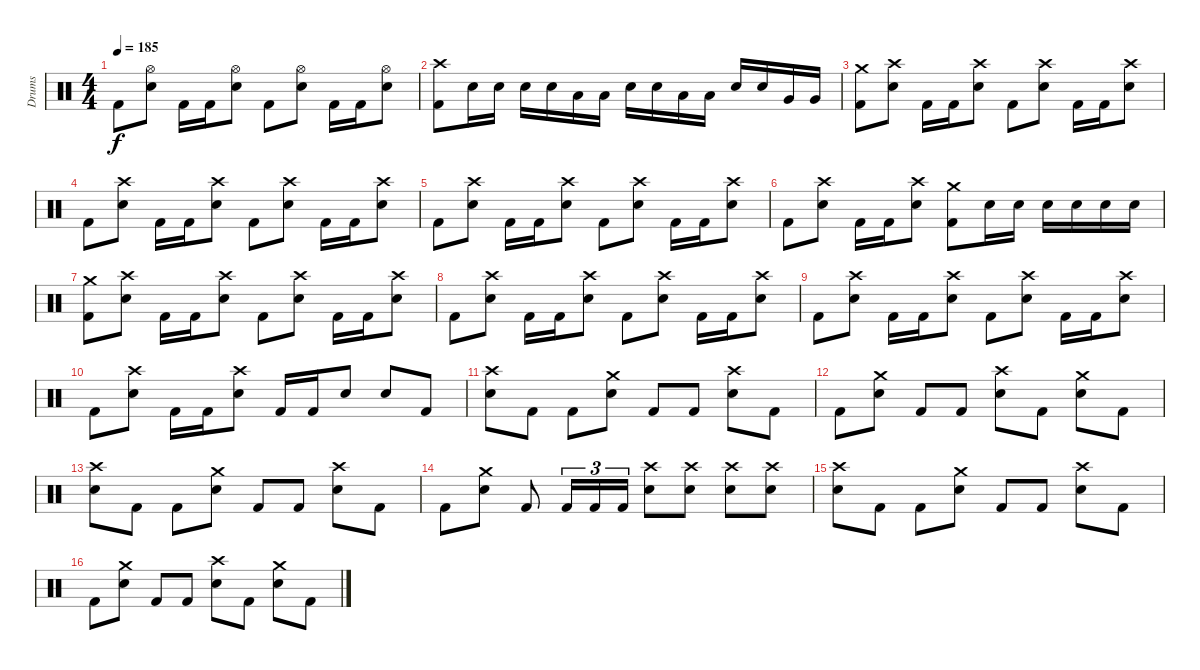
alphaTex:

\track ("Drums" "Drums") {instrument percussion}
\staff {score}
\articulation defaults
\ts (4 4)
\tempo 185
\clef neutral
\ks c "Kick (hit) 2".8{dy f}
("Hi-Hat (open)" "Electric Snare (hit)").8 "Kick (hit) 2".16 "Kick (hit) 2".16 ("Hi-Hat (open)" "Electric Snare (hit)").8 "Kick (hit) 2".8 ("Hi-Hat (open)" "Electric Snare (hit)").8 "Kick (hit) 2".16 "Kick (hit) 2".16 ("Hi-Hat (open)" "Electric Snare (hit)").8 |
("Crash high (hit)" "Kick (hit) 2").8 "Electric Snare (hit)".16 "Electric Snare (hit)".16 "Electric Snare (hit)".16 "Electric Snare (hit)".16 "Low Tom (hit)".16 "Low Tom (hit)".16 "Electric Snare (hit)".16 "Electric Snare (hit)".16 "Low Tom (hit)".16 "Low Tom (hit)".16 "Electric Snare (hit)".16 "Electric Snare (hit)".16 "Very Low Tom (hit)".16 "Very Low Tom (hit)".16 |
("Crash medium (hit)" "Kick (hit) 2").8 ("Crash high (hit)" "Electric Snare (hit)").8 "Kick (hit) 2".16 "Kick (hit) 2".16 ("Crash high (hit)" "Electric Snare (hit)").8 "Kick (hit) 2".8 ("Crash high (hit)" "Electric Snare (hit)").8 "Kick (hit) 2".16 "Kick (hit) 2".16 ("Crash high (hit)" "Electric Snare (hit)").8 |
"Kick (hit) 2".8 ("Crash high (hit)" "Electric Snare (hit)").8 "Kick (hit) 2".16 "Kick (hit) 2".16 ("Crash high (hit)" "Electric Snare (hit)").8 "Kick (hit) 2".8 ("Crash high (hit)" "Electric Snare (hit)").8 "Kick (hit) 2".16 "Kick (hit) 2".16 ("Crash high (hit)" "Electric Snare (hit)").8 |
"Kick (hit) 2".8 ("Crash high (hit)" "Electric Snare (hit)").8 "Kick (hit) 2".16 "Kick (hit) 2".16 ("Crash high (hit)" "Electric Snare (hit)").8 "Kick (hit) 2".8 ("Crash high (hit)" "Electric Snare (hit)").8 "Kick (hit) 2".16 "Kick (hit) 2".16 ("Crash high (hit)" "Electric Snare (hit)").8 |
"Kick (hit) 2".8 ("Crash high (hit)" "Electric Snare (hit)").8 "Kick (hit) 2".16 "Kick (hit) 2".16 ("Crash high (hit)" "Electric Snare (hit)").8 ("Crash medium (hit)" "Kick (hit) 2").8 "Electric Snare (hit)".16 "Electric Snare (hit)".16 "Electric Snare (hit)".16 "Electric Snare (hit)".16 "Electric Snare (hit)".16 "Electric Snare (hit)".16 |
("Crash medium (hit)" "Kick (hit) 2").8 ("Crash high (hit)" "Electric Snare (hit)").8 "Kick (hit) 2".16 "Kick (hit) 2".16 ("Crash high (hit)" "Electric Snare (hit)").8 "Kick (hit) 2".8 ("Crash high (hit)" "Electric Snare (hit)").8 "Kick (hit) 2".16 "Kick (hit) 2".16 ("Crash high (hit)" "Electric Snare (hit)").8 |
"Kick (hit) 2".8 ("Crash high (hit)" "Electric Snare (hit)").8 "Kick (hit) 2".16 "Kick (hit) 2".16 ("Crash high (hit)" "Electric Snare (hit)").8 "Kick (hit) 2".8 ("Crash high (hit)" "Electric Snare (hit)").8 "Kick (hit) 2".16 "Kick (hit) 2".16 ("Crash high (hit)" "Electric Snare (hit)").8 |
"Kick (hit) 2".8 ("Crash high (hit)" "Electric Snare (hit)").8 "Kick (hit) 2".16 "Kick (hit) 2".16 ("Crash high (hit)" "Electric Snare (hit)").8 "Kick (hit) 2".8 ("Crash high (hit)" "Electric Snare (hit)").8 "Kick (hit) 2".16 "Kick (hit) 2".16 ("Crash high (hit)" "Electric Snare (hit)").8 |
"Kick (hit) 2".8 ("Crash high (hit)" "Electric Snare (hit)").8 "Kick (hit) 2".16 "Kick (hit) 2".16 ("Crash high (hit)" "Electric Snare (hit)").8 "Kick (hit) 2".16 "Kick (hit) 2".16 "Electric Snare (hit)".8 "Electric Snare (hit)".8 "Kick (hit) 2".8 |
("Crash high (hit)" "Electric Snare (hit)").8 "Kick (hit) 2".8 "Kick (hit) 2".8 ("Crash medium (hit)" "Electric Snare (hit)").8 "Kick (hit) 2".8 "Kick (hit) 2".8 ("Crash high (hit)" "Electric Snare (hit)").8 "Kick (hit) 2".8 |
"Kick (hit) 2".8 ("Crash medium (hit)" "Electric Snare (hit)").8 "Kick (hit) 2".8 "Kick (hit) 2".8 ("Crash high (hit)" "Electric Snare (hit)").8 "Kick (hit) 2".8 ("Crash medium (hit)" "Electric Snare (hit)").8 "Kick (hit) 2".8 |
("Crash high (hit)" "Electric Snare (hit)").8 "Kick (hit) 2".8 "Kick (hit) 2".8 ("Crash medium (hit)" "Electric Snare (hit)").8 "Kick (hit) 2".8 "Kick (hit) 2".8 ("Crash high (hit)" "Electric Snare (hit)").8 "Kick (hit) 2".8 |
"Kick (hit) 2".8 ("Crash medium (hit)" "Electric Snare (hit)").8 "Kick (hit) 2".8 "Kick (hit) 2".16{tu (3 2)} "Kick (hit) 2".16{tu (3 2)} "Kick (hit) 2".16{tu (3 2)} ("Crash high (hit)" "Electric Snare (hit)").8 ("Crash high (hit)" "Electric Snare (hit)").8 ("Crash high (hit)" "Electric Snare (hit)").8 ("Crash high (hit)" "Electric Snare (hit)").8 |
("Crash high (hit)" "Electric Snare (hit)").8 "Kick (hit) 2".8 "Kick (hit) 2".8 ("Crash medium (hit)" "Electric Snare (hit)").8 "Kick (hit) 2".8 "Kick (hit) 2".8 ("Crash high (hit)" "Electric Snare (hit)").8 "Kick (hit) 2".8 |
"Kick (hit) 2".8 ("Crash medium (hit)" "Electric Snare (hit)").8 "Kick (hit) 2".8 "Kick (hit) 2".8 ("Crash high (hit)" "Electric Snare (hit)").8 "Kick (hit) 2".8 ("Crash medium (hit)" "Electric Snare (hit)").8 "Kick (hit) 2".8
